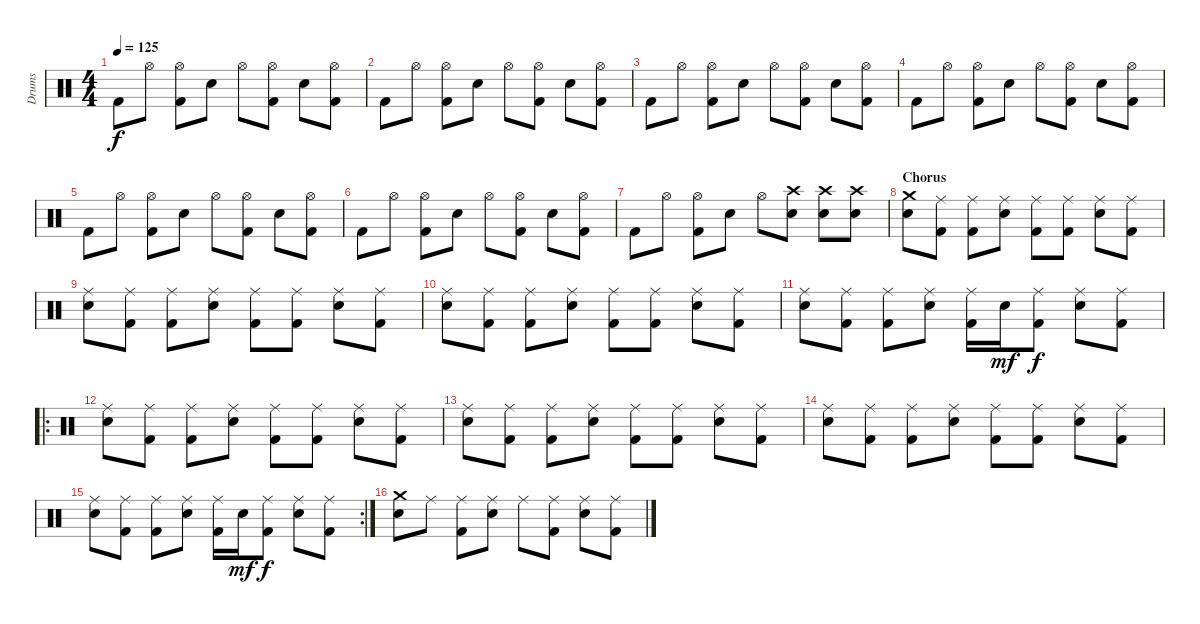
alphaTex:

\track ("Drums" "Drums") {instrument percussion}
\staff {score}
\articulation defaults
\ts (4 4)
\tempo 125
\clef neutral
\ks c "Kick (hit) 2".8{dy f} "Hi-Hat (open)".8
("Hi-Hat (open)" "Kick (hit) 2").8 "Snare (hit) 2".8 "Hi-Hat (open)".8 ("Hi-Hat (open)" "Kick (hit) 2").8 "Snare (hit) 2".8 ("Hi-Hat (open)" "Kick (hit) 2").8 |
"Kick (hit) 2".8 "Hi-Hat (open)".8 ("Hi-Hat (open)" "Kick (hit) 2").8 "Snare (hit) 2".8 "Hi-Hat (open)".8 ("Hi-Hat (open)" "Kick (hit) 2").8 "Snare (hit) 2".8 ("Hi-Hat (open)" "Kick (hit) 2").8 |
"Kick (hit) 2".8 "Hi-Hat (open)".8 ("Hi-Hat (open)" "Kick (hit) 2").8 "Snare (hit) 2".8 "Hi-Hat (open)".8 ("Hi-Hat (open)" "Kick (hit) 2").8 "Snare (hit) 2".8 ("Hi-Hat (open)" "Kick (hit) 2").8 |
"Kick (hit) 2".8 "Hi-Hat (open)".8 ("Hi-Hat (open)" "Kick (hit) 2").8 "Snare (hit) 2".8 "Hi-Hat (open)".8 ("Hi-Hat (open)" "Kick (hit) 2").8 "Snare (hit) 2".8 ("Hi-Hat (open)" "Kick (hit) 2").8 |
"Kick (hit) 2".8 "Hi-Hat (open)".8 ("Hi-Hat (open)" "Kick (hit) 2").8 "Snare (hit) 2".8 "Hi-Hat (open)".8 ("Hi-Hat (open)" "Kick (hit) 2").8 "Snare (hit) 2".8 ("Hi-Hat (open)" "Kick (hit) 2").8 |
"Kick (hit) 2".8 "Hi-Hat (open)".8 ("Hi-Hat (open)" "Kick (hit) 2").8 "Snare (hit) 2".8 "Hi-Hat (open)".8 ("Hi-Hat (open)" "Kick (hit) 2").8 "Snare (hit) 2".8 ("Hi-Hat (open)" "Kick (hit) 2").8 |
"Kick (hit) 2".8 "Hi-Hat (open)".8 ("Hi-Hat (open)" "Kick (hit) 2").8 "Snare (hit) 2".8 "Hi-Hat (open)".8 ("Crash high (hit)" "Snare (hit) 2").8 ("Crash high (hit)" "Snare (hit) 2").8 ("Crash high (hit)" "Snare (hit) 2").8 |
\section ("" "Chorus")
("Crash medium (hit)" "Snare (hit) 2").8 ("Ride (middle)" "Kick (hit) 2").8 ("Ride (middle)" "Kick (hit) 2").8 ("Ride (middle)" "Snare (hit) 2").8 ("Ride (middle)" "Kick (hit) 2").8 ("Ride (middle)" "Kick (hit) 2").8 ("Ride (middle)" "Snare (hit) 2").8 ("Ride (middle)" "Kick (hit) 2").8 |
("Ride (middle)" "Snare (hit) 2").8 ("Ride (middle)" "Kick (hit) 2").8 ("Ride (middle)" "Kick (hit) 2").8 ("Ride (middle)" "Snare (hit) 2").8 ("Ride (middle)" "Kick (hit) 2").8 ("Ride (middle)" "Kick (hit) 2").8 ("Ride (middle)" "Snare (hit) 2").8 ("Ride (middle)" "Kick (hit) 2").8 |
("Ride (middle)" "Snare (hit) 2").8 ("Ride (middle)" "Kick (hit) 2").8 ("Ride (middle)" "Kick (hit) 2").8 ("Ride (middle)" "Snare (hit) 2").8 ("Ride (middle)" "Kick (hit) 2").8 ("Ride (middle)" "Kick (hit) 2").8 ("Ride (middle)" "Snare (hit) 2").8 ("Ride (middle)" "Kick (hit) 2").8 |
("Ride (middle)" "Snare (hit) 2").8 ("Ride (middle)" "Kick (hit) 2").8 ("Ride (middle)" "Kick (hit) 2").8 ("Ride (middle)" "Snare (hit) 2").8 ("Ride (middle)" "Kick (hit) 2").16 "Snare (hit) 2".16{dy mf} ("Ride (middle)" "Kick (hit) 2").8{dy f} ("Ride (middle)" "Snare (hit) 2").8 ("Ride (middle)" "Kick (hit) 2").8 |
\ro
("Ride (middle)" "Snare (hit) 2").8 ("Ride (middle)" "Kick (hit) 2").8 ("Ride (middle)" "Kick (hit) 2").8 ("Ride (middle)" "Snare (hit) 2").8 ("Ride (middle)" "Kick (hit) 2").8 ("Ride (middle)" "Kick (hit) 2").8 ("Ride (middle)" "Snare (hit) 2").8 ("Ride (middle)" "Kick (hit) 2").8 |
("Ride (middle)" "Snare (hit) 2").8 ("Ride (middle)" "Kick (hit) 2").8 ("Ride (middle)" "Kick (hit) 2").8 ("Ride (middle)" "Snare (hit) 2").8 ("Ride (middle)" "Kick (hit) 2").8 ("Ride (middle)" "Kick (hit) 2").8 ("Ride (middle)" "Snare (hit) 2").8 ("Ride (middle)" "Kick (hit) 2").8 |
("Ride (middle)" "Snare (hit) 2").8 ("Ride (middle)" "Kick (hit) 2").8 ("Ride (middle)" "Kick (hit) 2").8 ("Ride (middle)" "Snare (hit) 2").8 ("Ride (middle)" "Kick (hit) 2").8 ("Ride (middle)" "Kick (hit) 2").8 ("Ride (middle)" "Snare (hit) 2").8 ("Ride (middle)" "Kick (hit) 2").8 |
\rc 2
("Ride (middle)" "Snare (hit) 2").8 ("Ride (middle)" "Kick (hit) 2").8 ("Ride (middle)" "Kick (hit) 2").8 ("Ride (middle)" "Snare (hit) 2").8 ("Ride (middle)" "Kick (hit) 2").16 "Snare (hit) 2".16{dy mf} ("Ride (middle)" "Kick (hit) 2").8{dy f} ("Ride (middle)" "Snare (hit) 2").8 ("Ride (middle)" "Kick (hit) 2").8 |
("Crash medium (hit)" "Snare (hit) 2").8 "Ride (middle)".8 ("Ride (middle)" "Kick (hit) 2").8 ("Ride (middle)" "Snare (hit) 2").8 "Ride (middle)".8 ("Ride (middle)" "Kick (hit) 2").8 ("Ride (middle)" "Snare (hit) 2").8 ("Ride (middle)" "Kick (hit) 2").8
